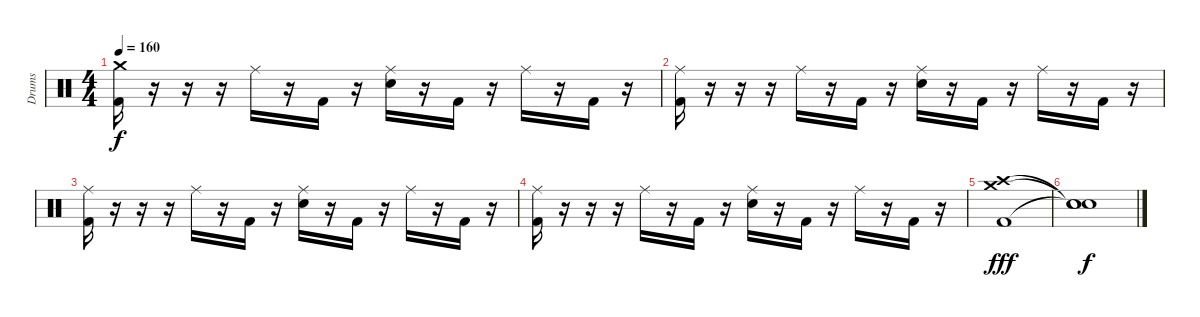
\track ("Drums" "Drums") {instrument percussion}
\staff {score}
\articulation defaults
\ts (4 4)
\tempo 160
\clef neutral
\ks c
("Crash medium (hit)" "Kick (hit) 2").16{dy f} r.16 r.16 r.16 "Ride (middle)".16 r.16 "Kick (hit) 2".16 r.16 ("Ride (middle)" "Electric Snare (hit)").16 r.16 "Kick (hit) 2".16 r.16 "Ride (middle)".16 r.16 "Kick (hit) 2".16 r.16 |
("Ride (middle)" "Kick (hit) 2").16 r.16 r.16 r.16 "Ride (middle)".16 r.16 "Kick (hit) 2".16 r.16 ("Ride (middle)" "Electric Snare (hit)").16 r.16 "Kick (hit) 2".16 r.16 "Ride (middle)".16 r.16 "Kick (hit) 2".16 r.16 |
("Ride (middle)" "Kick (hit) 2").16 r.16 r.16 r.16 "Ride (middle)".16 r.16 "Kick (hit) 2".16 r.16 ("Ride (middle)" "Electric Snare (hit)").16 r.16 "Kick (hit) 2".16 r.16 "Ride (middle)".16 r.16 "Kick (hit) 2".16 r.16 |
("Ride (middle)" "Kick (hit) 2").16 r.16 r.16 r.16 "Ride (middle)".16 r.16 "Kick (hit) 2".16 r.16 ("Ride (middle)" "Electric Snare (hit)").16 r.16 "Kick (hit) 2".16 r.16 "Ride (middle)".16 r.16 "Kick (hit) 2".16 r.16 |
("Crash medium (hit)" "Crash high (hit)" "Kick (hit) 2").1{dy fff} |
("Snare (hit)"{t} "Snare (hit)"{t} "Snare (hit)"{t}).1{dy f}
